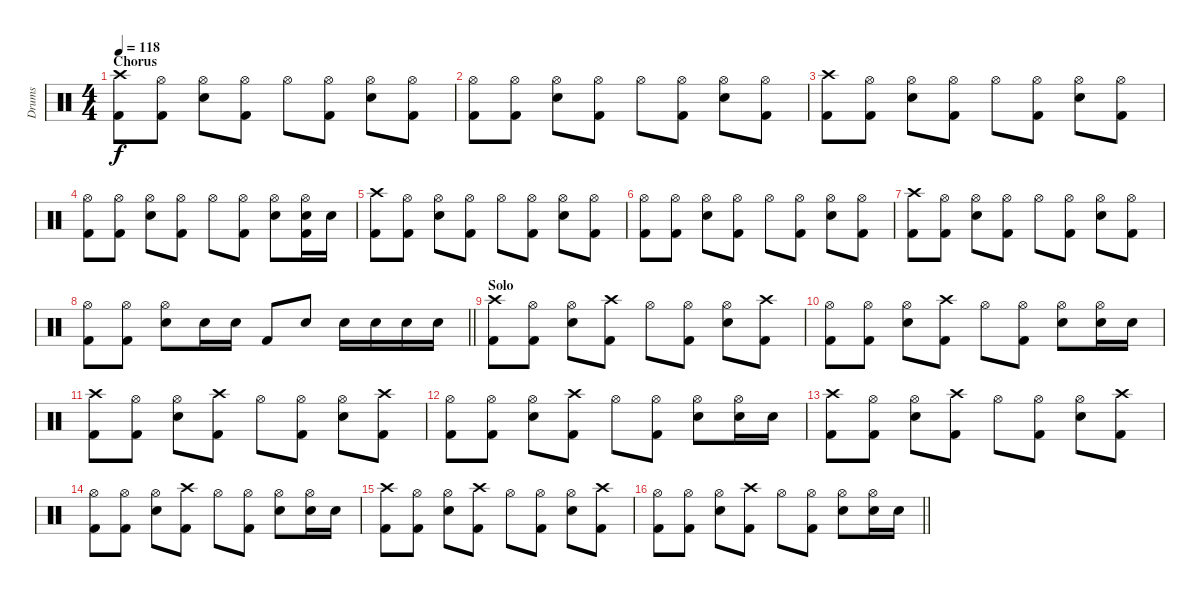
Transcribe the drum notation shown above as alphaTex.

\track ("Drums" "Drums") {instrument percussion}
\staff {score}
\articulation defaults
\ts (4 4)
\section ("" "Chorus")
\tempo 118
\clef neutral
\ks c
("Crash high (hit)" "Kick (hit) 2").8{dy f} ("Hi-Hat (open)" "Kick (hit) 2").8 ("Hi-Hat (open)" "Electric Snare (hit)").8 ("Hi-Hat (open)" "Kick (hit) 2").8 "Hi-Hat (open)".8 ("Hi-Hat (open)" "Kick (hit) 2").8 ("Hi-Hat (open)" "Electric Snare (hit)").8 ("Hi-Hat (open)" "Kick (hit) 2").8 |
("Hi-Hat (open)" "Kick (hit) 2").8 ("Hi-Hat (open)" "Kick (hit) 2").8 ("Hi-Hat (open)" "Electric Snare (hit)").8 ("Hi-Hat (open)" "Kick (hit) 2").8 "Hi-Hat (open)".8 ("Hi-Hat (open)" "Kick (hit) 2").8 ("Hi-Hat (open)" "Electric Snare (hit)").8 ("Hi-Hat (open)" "Kick (hit) 2").8 |
("Crash high (hit)" "Kick (hit) 2").8 ("Hi-Hat (open)" "Kick (hit) 2").8 ("Hi-Hat (open)" "Electric Snare (hit)").8 ("Hi-Hat (open)" "Kick (hit) 2").8 "Hi-Hat (open)".8 ("Hi-Hat (open)" "Kick (hit) 2").8 ("Hi-Hat (open)" "Electric Snare (hit)").8 ("Hi-Hat (open)" "Kick (hit) 2").8 |
("Hi-Hat (open)" "Kick (hit) 2").8 ("Hi-Hat (open)" "Kick (hit) 2").8 ("Hi-Hat (open)" "Electric Snare (hit)").8 ("Hi-Hat (open)" "Kick (hit) 2").8 "Hi-Hat (open)".8 ("Hi-Hat (open)" "Kick (hit) 2").8 ("Hi-Hat (open)" "Electric Snare (hit)").8 ("Hi-Hat (open)" "Electric Snare (hit)" "Kick (hit) 2").16 "Electric Snare (hit)".16 |
("Crash high (hit)" "Kick (hit) 2").8 ("Hi-Hat (open)" "Kick (hit) 2").8 ("Hi-Hat (open)" "Electric Snare (hit)").8 ("Hi-Hat (open)" "Kick (hit) 2").8 "Hi-Hat (open)".8 ("Hi-Hat (open)" "Kick (hit) 2").8 ("Hi-Hat (open)" "Electric Snare (hit)").8 ("Hi-Hat (open)" "Kick (hit) 2").8 |
("Hi-Hat (open)" "Kick (hit) 2").8 ("Hi-Hat (open)" "Kick (hit) 2").8 ("Hi-Hat (open)" "Electric Snare (hit)").8 ("Hi-Hat (open)" "Kick (hit) 2").8 "Hi-Hat (open)".8 ("Hi-Hat (open)" "Kick (hit) 2").8 ("Hi-Hat (open)" "Electric Snare (hit)").8 ("Hi-Hat (open)" "Kick (hit) 2").8 |
("Crash high (hit)" "Kick (hit) 2").8 ("Hi-Hat (open)" "Kick (hit) 2").8 ("Hi-Hat (open)" "Electric Snare (hit)").8 ("Hi-Hat (open)" "Kick (hit) 2").8 "Hi-Hat (open)".8 ("Hi-Hat (open)" "Kick (hit) 2").8 ("Hi-Hat (open)" "Electric Snare (hit)").8 ("Hi-Hat (open)" "Kick (hit) 2").8 |
\barLineRight lightlight
("Hi-Hat (open)" "Kick (hit) 2").8 ("Hi-Hat (open)" "Kick (hit) 2").8 ("Hi-Hat (open)" "Snare (hit) 2").8 "Snare (hit) 2".16 "Snare (hit) 2".16 "Kick (hit) 2".8 "Snare (hit) 2".8 "Snare (hit) 2".16 "Snare (hit) 2".16 "Snare (hit) 2".16 "Snare (hit) 2".16 |
\section ("" "Solo")
("Crash high (hit)" "Kick (hit) 2").8 ("Hi-Hat (open)" "Kick (hit) 2").8 ("Hi-Hat (open)" "Electric Snare (hit)").8 ("Crash high (hit)" "Kick (hit) 2").8 "Hi-Hat (open)".8 ("Hi-Hat (open)" "Kick (hit) 2").8 ("Hi-Hat (open)" "Electric Snare (hit)").8 ("Crash high (hit)" "Kick (hit) 2").8 |
("Hi-Hat (open)" "Kick (hit) 2").8 ("Hi-Hat (open)" "Kick (hit) 2").8 ("Hi-Hat (open)" "Electric Snare (hit)").8 ("Crash high (hit)" "Kick (hit) 2").8 "Hi-Hat (open)".8 ("Hi-Hat (open)" "Kick (hit) 2").8 ("Hi-Hat (open)" "Electric Snare (hit)").8 ("Hi-Hat (open)" "Electric Snare (hit)").16 "Electric Snare (hit)".16 |
("Crash high (hit)" "Kick (hit) 2").8 ("Hi-Hat (open)" "Kick (hit) 2").8 ("Hi-Hat (open)" "Electric Snare (hit)").8 ("Crash high (hit)" "Kick (hit) 2").8 "Hi-Hat (open)".8 ("Hi-Hat (open)" "Kick (hit) 2").8 ("Hi-Hat (open)" "Electric Snare (hit)").8 ("Crash high (hit)" "Kick (hit) 2").8 |
("Hi-Hat (open)" "Kick (hit) 2").8 ("Hi-Hat (open)" "Kick (hit) 2").8 ("Hi-Hat (open)" "Electric Snare (hit)").8 ("Crash high (hit)" "Kick (hit) 2").8 "Hi-Hat (open)".8 ("Hi-Hat (open)" "Kick (hit) 2").8 ("Hi-Hat (open)" "Electric Snare (hit)").8 ("Hi-Hat (open)" "Electric Snare (hit)").16 "Electric Snare (hit)".16 |
("Crash high (hit)" "Kick (hit) 2").8 ("Hi-Hat (open)" "Kick (hit) 2").8 ("Hi-Hat (open)" "Electric Snare (hit)").8 ("Crash high (hit)" "Kick (hit) 2").8 "Hi-Hat (open)".8 ("Hi-Hat (open)" "Kick (hit) 2").8 ("Hi-Hat (open)" "Electric Snare (hit)").8 ("Crash high (hit)" "Kick (hit) 2").8 |
("Hi-Hat (open)" "Kick (hit) 2").8 ("Hi-Hat (open)" "Kick (hit) 2").8 ("Hi-Hat (open)" "Electric Snare (hit)").8 ("Crash high (hit)" "Kick (hit) 2").8 "Hi-Hat (open)".8 ("Hi-Hat (open)" "Kick (hit) 2").8 ("Hi-Hat (open)" "Electric Snare (hit)").8 ("Hi-Hat (open)" "Electric Snare (hit)").16 "Electric Snare (hit)".16 |
("Crash high (hit)" "Kick (hit) 2").8 ("Hi-Hat (open)" "Kick (hit) 2").8 ("Hi-Hat (open)" "Electric Snare (hit)").8 ("Crash high (hit)" "Kick (hit) 2").8 "Hi-Hat (open)".8 ("Hi-Hat (open)" "Kick (hit) 2").8 ("Hi-Hat (open)" "Electric Snare (hit)").8 ("Crash high (hit)" "Kick (hit) 2").8 |
\barLineRight lightlight
("Hi-Hat (open)" "Kick (hit) 2").8 ("Hi-Hat (open)" "Kick (hit) 2").8 ("Hi-Hat (open)" "Electric Snare (hit)").8 ("Crash high (hit)" "Kick (hit) 2").8 "Hi-Hat (open)".8 ("Hi-Hat (open)" "Kick (hit) 2").8 ("Hi-Hat (open)" "Electric Snare (hit)").8 ("Hi-Hat (open)" "Electric Snare (hit)").16 "Electric Snare (hit)".16
